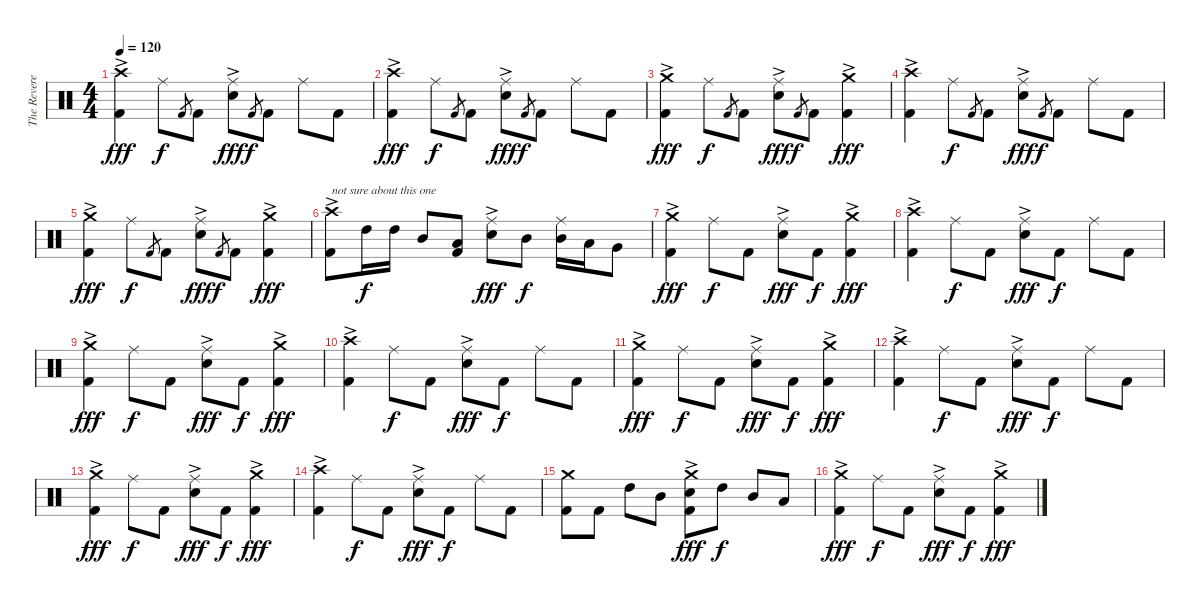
\track ("The Reverend" "The Revere") {instrument percussion}
\staff {score}
\articulation defaults
\ts (4 4)
\tempo 120
\clef neutral
\ks c
("Crash high (hit)"{ac} "Kick (hit) 2").4{dy fff} "Ride (middle)".8{dy f} "Kick (hit) 2".8{gr} "Kick (hit) 2".8 ("Ride (middle)" "Electric Snare (hit)"{ac}).8{dy fff} "Kick (hit) 2".8{gr dy f} "Kick (hit) 2".8 "Ride (middle)".8 "Kick (hit) 2".8 |
("Crash high (hit)"{ac} "Kick (hit) 2").4{dy fff} "Ride (middle)".8{dy f} "Kick (hit) 2".8{gr} "Kick (hit) 2".8 ("Ride (middle)" "Electric Snare (hit)"{ac}).8{dy fff} "Kick (hit) 2".8{gr dy f} "Kick (hit) 2".8 "Ride (middle)".8 "Kick (hit) 2".8 |
("Crash medium (hit)"{ac} "Kick (hit) 2").4{dy fff} "Ride (middle)".8{dy f} "Kick (hit) 2".8{gr} "Kick (hit) 2".8 ("Ride (middle)" "Electric Snare (hit)"{ac}).8{dy fff} "Kick (hit) 2".8{gr dy f} "Kick (hit) 2".8 ("Crash medium (hit)"{ac} "Kick (hit) 2").4{dy fff} |
("Crash high (hit)"{ac} "Kick (hit) 2").4 "Ride (middle)".8{dy f} "Kick (hit) 2".8{gr} "Kick (hit) 2".8 ("Ride (middle)" "Electric Snare (hit)"{ac}).8{dy fff} "Kick (hit) 2".8{gr dy f} "Kick (hit) 2".8 "Ride (middle)".8 "Kick (hit) 2".8 |
("Crash medium (hit)"{ac} "Kick (hit) 2").4{dy fff} "Ride (middle)".8{dy f} "Kick (hit) 2".8{gr} "Kick (hit) 2".8 ("Ride (middle)" "Electric Snare (hit)"{ac}).8{dy fff} "Kick (hit) 2".8{gr dy f} "Kick (hit) 2".8 ("Crash medium (hit)"{ac} "Kick (hit) 2").4{dy fff} |
("Crash high (hit)"{ac} "Kick (hit) 2").8{txt "not sure about this one"} "High Tom (hit)".16{dy f} "High Tom (hit)".16 "Mid Tom (hit)".8 ("Low Tom (hit)" "Kick (hit) 2").8 ("Ride (middle)" "Electric Snare (hit)"{ac}).8{dy fff} "Mid Tom (hit)".8{dy f} ("Ride (middle)" "Mid Tom (hit)").16 "Low Tom (hit)".16 "Very Low Tom (hit)".8 |
("Crash medium (hit)"{ac} "Kick (hit) 2").4{dy fff} "Ride (middle)".8{dy f} "Kick (hit) 2".8 ("Ride (middle)" "Electric Snare (hit)"{ac}).8{dy fff} "Kick (hit) 2".8{dy f} ("Crash medium (hit)"{ac} "Kick (hit) 2").4{dy fff} |
("Crash high (hit)"{ac} "Kick (hit) 2").4 "Ride (middle)".8{dy f} "Kick (hit) 2".8 ("Ride (middle)" "Electric Snare (hit)"{ac}).8{dy fff} "Kick (hit) 2".8{dy f} "Ride (middle)".8 "Kick (hit) 2".8 |
("Crash medium (hit)"{ac} "Kick (hit) 2").4{dy fff} "Ride (middle)".8{dy f} "Kick (hit) 2".8 ("Ride (middle)" "Electric Snare (hit)"{ac}).8{dy fff} "Kick (hit) 2".8{dy f} ("Crash medium (hit)"{ac} "Kick (hit) 2").4{dy fff} |
("Crash high (hit)"{ac} "Kick (hit) 2").4 "Ride (middle)".8{dy f} "Kick (hit) 2".8 ("Ride (middle)" "Electric Snare (hit)"{ac}).8{dy fff} "Kick (hit) 2".8{dy f} "Ride (middle)".8 "Kick (hit) 2".8 |
("Crash medium (hit)"{ac} "Kick (hit) 2").4{dy fff} "Ride (middle)".8{dy f} "Kick (hit) 2".8 ("Ride (middle)" "Electric Snare (hit)"{ac}).8{dy fff} "Kick (hit) 2".8{dy f} ("Crash medium (hit)"{ac} "Kick (hit) 2").4{dy fff} |
("Crash high (hit)"{ac} "Kick (hit) 2").4 "Ride (middle)".8{dy f} "Kick (hit) 2".8 ("Ride (middle)" "Electric Snare (hit)"{ac}).8{dy fff} "Kick (hit) 2".8{dy f} "Ride (middle)".8 "Kick (hit) 2".8 |
("Crash medium (hit)"{ac} "Kick (hit) 2").4{dy fff} "Ride (middle)".8{dy f} "Kick (hit) 2".8 ("Ride (middle)" "Electric Snare (hit)"{ac}).8{dy fff} "Kick (hit) 2".8{dy f} ("Crash medium (hit)"{ac} "Kick (hit) 2").4{dy fff} |
("Crash high (hit)"{ac} "Kick (hit) 2").4 "Ride (middle)".8{dy f} "Kick (hit) 2".8 ("Ride (middle)" "Electric Snare (hit)"{ac}).8{dy fff} "Kick (hit) 2".8{dy f} "Ride (middle)".8 "Kick (hit) 2".8 |
("Crash medium (hit)" "Kick (hit) 2").8 "Kick (hit) 2".8 "High Tom (hit)".8 "Mid Tom (hit)".8 ("Crash medium (hit)" "Electric Snare (hit)"{ac} "Kick (hit) 2").8{dy fff} "High Tom (hit)".8{dy f} "Mid Tom (hit)".8 "Low Tom (hit)".8 |
("Crash medium (hit)"{ac} "Kick (hit) 2").4{dy fff} "Ride (middle)".8{dy f} "Kick (hit) 2".8 ("Ride (middle)" "Electric Snare (hit)"{ac}).8{dy fff} "Kick (hit) 2".8{dy f} ("Crash medium (hit)"{ac} "Kick (hit) 2").4{dy fff}
